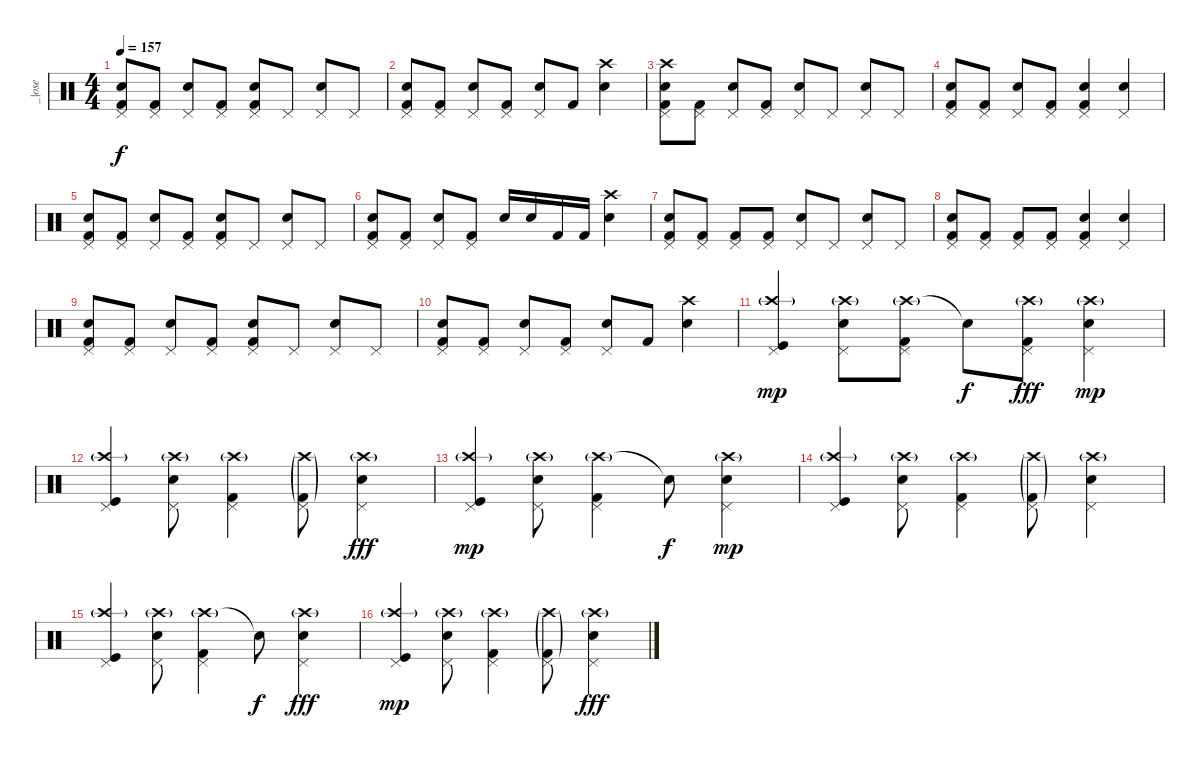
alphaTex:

\track ("_|ose" "_|ose") {instrument percussion}
\staff {score}
\articulation defaults
\ts (4 4)
\tempo 157
\clef neutral
\ks c
("Pedal Hi-Hat (hit)" "Electric Snare (hit)" "Kick (hit) 2").8{dy f} ("Pedal Hi-Hat (hit)" "Kick (hit) 2").8 ("Pedal Hi-Hat (hit)" "Electric Snare (hit)").8 ("Pedal Hi-Hat (hit)" "Kick (hit) 2").8 ("Pedal Hi-Hat (hit)" "Electric Snare (hit)" "Kick (hit) 2").8 "Pedal Hi-Hat (hit)".8 ("Pedal Hi-Hat (hit)" "Electric Snare (hit)").8 "Pedal Hi-Hat (hit)".8 |
("Pedal Hi-Hat (hit)" "Electric Snare (hit)" "Kick (hit) 2").8 ("Pedal Hi-Hat (hit)" "Kick (hit) 2").8 ("Pedal Hi-Hat (hit)" "Electric Snare (hit)").8 ("Pedal Hi-Hat (hit)" "Kick (hit) 2").8 ("Pedal Hi-Hat (hit)" "Electric Snare (hit)").8 "Kick (hit) 2".8 ("Crash high (hit)" "Electric Snare (hit)").4 |
("Crash high (hit)" "Pedal Hi-Hat (hit)" "Electric Snare (hit)" "Kick (hit) 2").8 ("Pedal Hi-Hat (hit)" "Kick (hit) 2").8 ("Pedal Hi-Hat (hit)" "Electric Snare (hit)").8 ("Pedal Hi-Hat (hit)" "Kick (hit) 2").8 ("Pedal Hi-Hat (hit)" "Electric Snare (hit)").8 "Pedal Hi-Hat (hit)".8 ("Pedal Hi-Hat (hit)" "Electric Snare (hit)").8 "Pedal Hi-Hat (hit)".8 |
("Pedal Hi-Hat (hit)" "Electric Snare (hit)" "Kick (hit) 2").8 ("Pedal Hi-Hat (hit)" "Kick (hit) 2").8 ("Pedal Hi-Hat (hit)" "Electric Snare (hit)").8 ("Pedal Hi-Hat (hit)" "Kick (hit) 2").8 ("Pedal Hi-Hat (hit)" "Electric Snare (hit)" "Kick (hit) 2").4 ("Pedal Hi-Hat (hit)" "Electric Snare (hit)").4 |
("Pedal Hi-Hat (hit)" "Electric Snare (hit)" "Kick (hit) 2").8 ("Pedal Hi-Hat (hit)" "Kick (hit) 2").8 ("Pedal Hi-Hat (hit)" "Electric Snare (hit)").8 ("Pedal Hi-Hat (hit)" "Kick (hit) 2").8 ("Pedal Hi-Hat (hit)" "Electric Snare (hit)" "Kick (hit) 2").8 "Pedal Hi-Hat (hit)".8 ("Pedal Hi-Hat (hit)" "Electric Snare (hit)").8 "Pedal Hi-Hat (hit)".8 |
("Pedal Hi-Hat (hit)" "Electric Snare (hit)" "Kick (hit) 2").8 ("Pedal Hi-Hat (hit)" "Kick (hit) 2").8 ("Pedal Hi-Hat (hit)" "Electric Snare (hit)").8 ("Pedal Hi-Hat (hit)" "Kick (hit) 2").8 "Electric Snare (hit)".16 "Electric Snare (hit)".16 "Kick (hit) 2".16 "Kick (hit) 2".16 ("Crash high (hit)" "Electric Snare (hit)").4 |
("Pedal Hi-Hat (hit)" "Electric Snare (hit)" "Kick (hit) 2").8 ("Pedal Hi-Hat (hit)" "Kick (hit) 2").8 ("Pedal Hi-Hat (hit)" "Kick (hit) 2").8 ("Pedal Hi-Hat (hit)" "Kick (hit) 2").8 ("Pedal Hi-Hat (hit)" "Electric Snare (hit)").8 "Pedal Hi-Hat (hit)".8 ("Pedal Hi-Hat (hit)" "Electric Snare (hit)").8 "Pedal Hi-Hat (hit)".8 |
("Pedal Hi-Hat (hit)" "Electric Snare (hit)" "Kick (hit) 2").8 ("Pedal Hi-Hat (hit)" "Kick (hit) 2").8 ("Pedal Hi-Hat (hit)" "Kick (hit) 2").8 ("Pedal Hi-Hat (hit)" "Kick (hit) 2").8 ("Pedal Hi-Hat (hit)" "Electric Snare (hit)" "Kick (hit) 2").4 ("Pedal Hi-Hat (hit)" "Electric Snare (hit)").4 |
("Pedal Hi-Hat (hit)" "Electric Snare (hit)" "Kick (hit) 2").8 ("Pedal Hi-Hat (hit)" "Kick (hit) 2").8 ("Pedal Hi-Hat (hit)" "Electric Snare (hit)").8 ("Pedal Hi-Hat (hit)" "Kick (hit) 2").8 ("Pedal Hi-Hat (hit)" "Electric Snare (hit)" "Kick (hit) 2").8 "Pedal Hi-Hat (hit)".8 ("Pedal Hi-Hat (hit)" "Electric Snare (hit)").8 "Pedal Hi-Hat (hit)".8 |
("Pedal Hi-Hat (hit)" "Electric Snare (hit)" "Kick (hit) 2").8 ("Pedal Hi-Hat (hit)" "Kick (hit) 2").8 ("Pedal Hi-Hat (hit)" "Electric Snare (hit)").8 ("Pedal Hi-Hat (hit)" "Kick (hit) 2").8 ("Pedal Hi-Hat (hit)" "Electric Snare (hit)").8 "Kick (hit) 2".8 ("Crash high (hit)" "Electric Snare (hit)").4 |
("Crash high (hit)"{g} "Pedal Hi-Hat (hit)" "Kick (hit)").4{dy mp} ("Crash high (hit)"{g} "Pedal Hi-Hat (hit)" "Electric Snare (hit)").8 ("Crash high (hit)"{g} "Pedal Hi-Hat (hit)" "Kick (hit) 2").8 "Snare (hit)"{t}.8{dy f} ("Crash high (hit)"{g} "Pedal Hi-Hat (hit)" "Kick (hit) 2").8{dy fff} ("Crash high (hit)"{g} "Pedal Hi-Hat (hit)" "Electric Snare (hit)").4{dy mp} |
("Crash high (hit)"{g} "Pedal Hi-Hat (hit)" "Kick (hit)").4 ("Crash high (hit)"{g} "Pedal Hi-Hat (hit)" "Electric Snare (hit)").8 ("Crash high (hit)"{g} "Pedal Hi-Hat (hit)" "Kick (hit) 2").4 ("Crash high (hit)"{g} "Pedal Hi-Hat (hit)" "Kick (hit) 2"{g}).8 ("Crash high (hit)"{g} "Pedal Hi-Hat (hit)" "Electric Snare (hit)").4{dy fff} |
("Crash high (hit)"{g} "Pedal Hi-Hat (hit)" "Kick (hit)").4{dy mp} ("Crash high (hit)"{g} "Pedal Hi-Hat (hit)" "Electric Snare (hit)").8 ("Crash high (hit)"{g} "Pedal Hi-Hat (hit)" "Kick (hit) 2").4 "Snare (hit)"{t}.8{dy f} ("Crash high (hit)"{g} "Pedal Hi-Hat (hit)" "Electric Snare (hit)").4{dy mp} |
("Crash high (hit)"{g} "Pedal Hi-Hat (hit)" "Kick (hit)").4 ("Crash high (hit)"{g} "Pedal Hi-Hat (hit)" "Electric Snare (hit)").8 ("Crash high (hit)"{g} "Pedal Hi-Hat (hit)" "Kick (hit) 2").4 ("Crash high (hit)"{g} "Pedal Hi-Hat (hit)" "Kick (hit) 2"{g}).8 ("Crash high (hit)"{g} "Pedal Hi-Hat (hit)" "Electric Snare (hit)").4 |
("Crash high (hit)"{g} "Pedal Hi-Hat (hit)" "Kick (hit)").4 ("Crash high (hit)"{g} "Pedal Hi-Hat (hit)" "Electric Snare (hit)").8 ("Crash high (hit)"{g} "Pedal Hi-Hat (hit)" "Kick (hit) 2").4 "Snare (hit)"{t}.8{dy f} ("Crash high (hit)"{g} "Pedal Hi-Hat (hit)" "Electric Snare (hit)").4{dy fff} |
("Crash high (hit)"{g} "Pedal Hi-Hat (hit)" "Kick (hit)").4{dy mp} ("Crash high (hit)"{g} "Pedal Hi-Hat (hit)" "Electric Snare (hit)").8 ("Crash high (hit)"{g} "Pedal Hi-Hat (hit)" "Kick (hit) 2").4 ("Crash high (hit)"{g} "Pedal Hi-Hat (hit)" "Kick (hit) 2"{g}).8 ("Crash high (hit)"{g} "Pedal Hi-Hat (hit)" "Electric Snare (hit)").4{dy fff}
